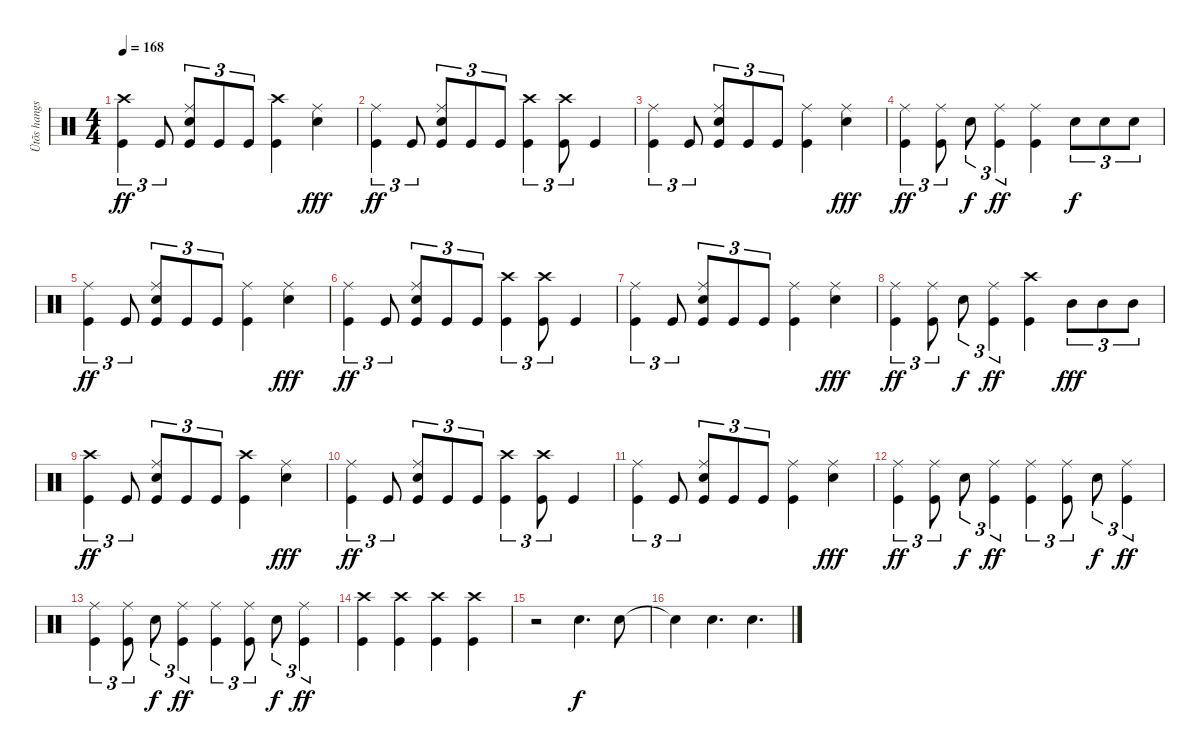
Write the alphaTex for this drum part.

\track ("Ütõs hangszer" "Ütõs hangs") {instrument percussion}
\staff {score}
\articulation defaults
\ts (4 4)
\tempo 168
\clef neutral
\ks c
("Crash high (hit)" "Kick (hit)").4{tu (3 2) dy ff} "Kick (hit)".8{tu (3 2)} ("Ride (middle)" "Electric Snare (hit)" "Kick (hit)").8{tu (3 2)} "Kick (hit)".8{tu (3 2)} "Kick (hit)".8{tu (3 2)} ("Crash high (hit)" "Kick (hit)").4 ("Ride (middle)" "Electric Snare (hit)").4{dy fff} |
("Ride (middle)" "Kick (hit)").4{tu (3 2) dy ff} "Kick (hit)".8{tu (3 2)} ("Ride (middle)" "Electric Snare (hit)" "Kick (hit)").8{tu (3 2)} "Kick (hit)".8{tu (3 2)} "Kick (hit)".8{tu (3 2)} ("Crash high (hit)" "Kick (hit)").4{tu (3 2)} ("Crash high (hit)" "Kick (hit)").8{tu (3 2)} "Kick (hit)".4 |
("Ride (middle)" "Kick (hit)").4{tu (3 2)} "Kick (hit)".8{tu (3 2)} ("Ride (middle)" "Electric Snare (hit)" "Kick (hit)").8{tu (3 2)} "Kick (hit)".8{tu (3 2)} "Kick (hit)".8{tu (3 2)} ("Ride (middle)" "Kick (hit)").4 ("Ride (middle)" "Electric Snare (hit)").4{dy fff} |
("Ride (middle)" "Kick (hit)").4{tu (3 2) dy ff} ("Ride (middle)" "Kick (hit)").8{tu (3 2)} "Electric Snare (hit)".8{tu (3 2) dy f} ("Ride (middle)" "Kick (hit)").4{tu (3 2) dy ff} ("Ride (middle)" "Kick (hit)").4 "Electric Snare (hit)".8{tu (3 2) dy f} "Electric Snare (hit)".8{tu (3 2)} "Electric Snare (hit)".8{tu (3 2)} |
("Ride (middle)" "Kick (hit)").4{tu (3 2) dy ff} "Kick (hit)".8{tu (3 2)} ("Ride (middle)" "Electric Snare (hit)" "Kick (hit)").8{tu (3 2)} "Kick (hit)".8{tu (3 2)} "Kick (hit)".8{tu (3 2)} ("Ride (middle)" "Kick (hit)").4 ("Ride (middle)" "Electric Snare (hit)").4{dy fff} |
("Ride (middle)" "Kick (hit)").4{tu (3 2) dy ff} "Kick (hit)".8{tu (3 2)} ("Ride (middle)" "Electric Snare (hit)" "Kick (hit)").8{tu (3 2)} "Kick (hit)".8{tu (3 2)} "Kick (hit)".8{tu (3 2)} ("Crash high (hit)" "Kick (hit)").4{tu (3 2)} ("Crash high (hit)" "Kick (hit)").8{tu (3 2)} "Kick (hit)".4 |
("Ride (middle)" "Kick (hit)").4{tu (3 2)} "Kick (hit)".8{tu (3 2)} ("Ride (middle)" "Electric Snare (hit)" "Kick (hit)").8{tu (3 2)} "Kick (hit)".8{tu (3 2)} "Kick (hit)".8{tu (3 2)} ("Ride (middle)" "Kick (hit)").4 ("Ride (middle)" "Electric Snare (hit)").4{dy fff} |
("Ride (middle)" "Kick (hit)").4{tu (3 2) dy ff} ("Ride (middle)" "Kick (hit)").8{tu (3 2)} "Electric Snare (hit)".8{tu (3 2) dy f} ("Ride (middle)" "Kick (hit)").4{tu (3 2) dy ff} ("Crash high (hit)" "Kick (hit)").4 "Mid Tom (hit)".8{tu (3 2) dy fff} "Mid Tom (hit)".8{tu (3 2)} "Mid Tom (hit)".8{tu (3 2)} |
("Crash high (hit)" "Kick (hit)").4{tu (3 2) dy ff} "Kick (hit)".8{tu (3 2)} ("Ride (middle)" "Electric Snare (hit)" "Kick (hit)").8{tu (3 2)} "Kick (hit)".8{tu (3 2)} "Kick (hit)".8{tu (3 2)} ("Crash high (hit)" "Kick (hit)").4 ("Ride (middle)" "Electric Snare (hit)").4{dy fff} |
("Ride (middle)" "Kick (hit)").4{tu (3 2) dy ff} "Kick (hit)".8{tu (3 2)} ("Ride (middle)" "Electric Snare (hit)" "Kick (hit)").8{tu (3 2)} "Kick (hit)".8{tu (3 2)} "Kick (hit)".8{tu (3 2)} ("Crash high (hit)" "Kick (hit)").4{tu (3 2)} ("Crash high (hit)" "Kick (hit)").8{tu (3 2)} "Kick (hit)".4 |
("Ride (middle)" "Kick (hit)").4{tu (3 2)} "Kick (hit)".8{tu (3 2)} ("Ride (middle)" "Electric Snare (hit)" "Kick (hit)").8{tu (3 2)} "Kick (hit)".8{tu (3 2)} "Kick (hit)".8{tu (3 2)} ("Ride (middle)" "Kick (hit)").4 ("Ride (middle)" "Electric Snare (hit)").4{dy fff} |
("Ride (middle)" "Kick (hit)").4{tu (3 2) dy ff} ("Ride (middle)" "Kick (hit)").8{tu (3 2)} "Electric Snare (hit)".8{tu (3 2) dy f} ("Ride (middle)" "Kick (hit)").4{tu (3 2) dy ff} ("Ride (middle)" "Kick (hit)").4{tu (3 2)} ("Ride (middle)" "Kick (hit)").8{tu (3 2)} "Electric Snare (hit)".8{tu (3 2) dy f} ("Ride (middle)" "Kick (hit)").4{tu (3 2) dy ff} |
("Ride (middle)" "Kick (hit)").4{tu (3 2)} ("Ride (middle)" "Kick (hit)").8{tu (3 2)} "Electric Snare (hit)".8{tu (3 2) dy f} ("Ride (middle)" "Kick (hit)").4{tu (3 2) dy ff} ("Ride (middle)" "Kick (hit)").4{tu (3 2)} ("Ride (middle)" "Kick (hit)").8{tu (3 2)} "Electric Snare (hit)".8{tu (3 2) dy f} ("Ride (middle)" "Kick (hit)").4{tu (3 2) dy ff} |
("Crash high (hit)" "Kick (hit)").4 ("Crash high (hit)" "Kick (hit)").4 ("Crash high (hit)" "Kick (hit)").4 ("Crash high (hit)" "Kick (hit)").4 |
r.2 "Electric Snare (hit)".4{d dy f} "Electric Snare (hit)".8 |
"Electric Snare (hit)"{t}.4 "Electric Snare (hit)".4{d} "Electric Snare (hit)".4{d}
